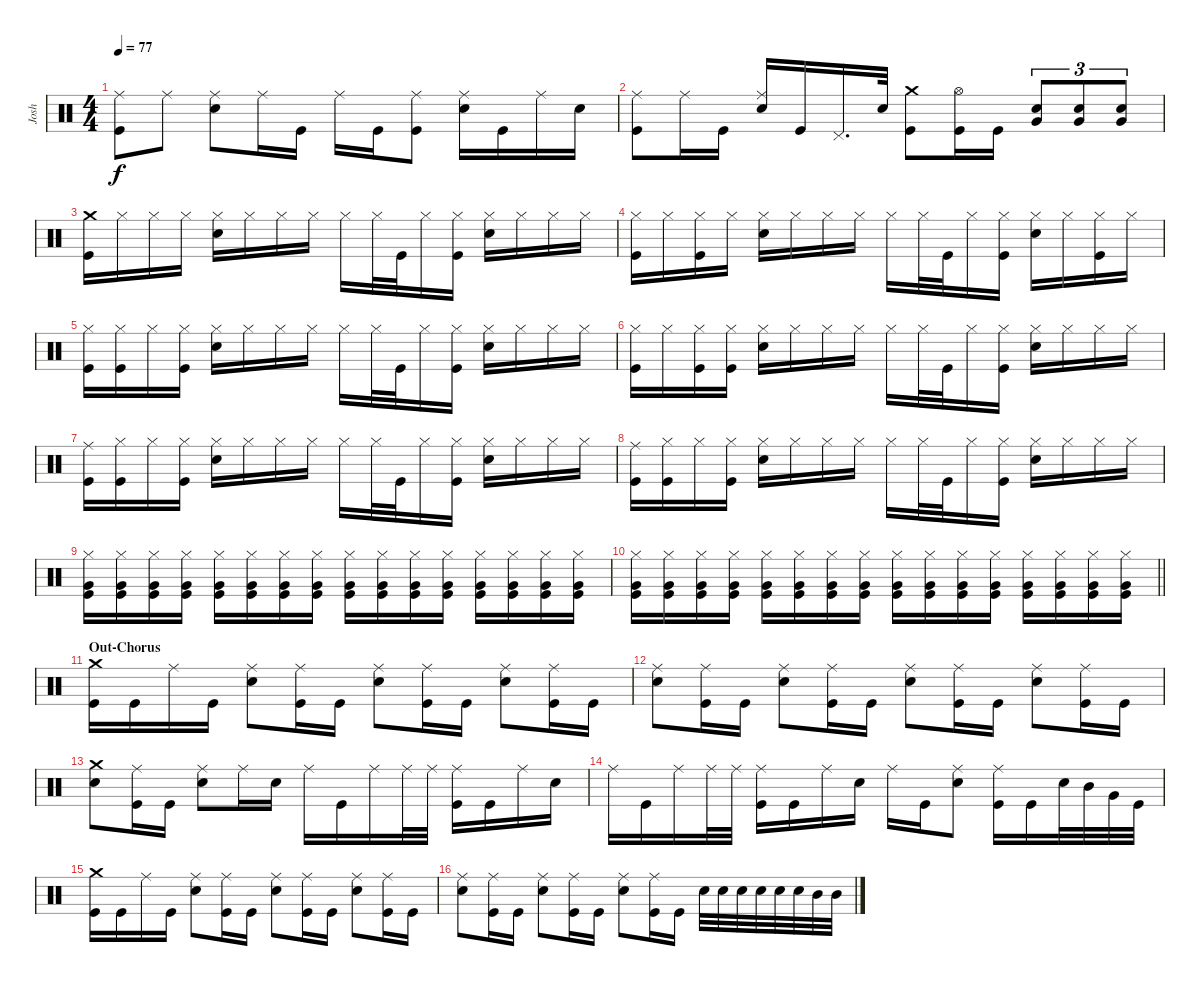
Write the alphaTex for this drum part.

\track ("Josh" "Josh") {instrument percussion}
\staff {score}
\articulation defaults
\ts (4 4)
\tempo 77
\clef neutral
\ks c
("Ride (middle)" "Kick (hit)").8{dy f} "Ride (middle)".8 ("Ride (middle)" "Snare (hit) 2").8 "Ride (middle)".16 "Kick (hit)".16 "Ride (middle)".16 "Kick (hit)".16 ("Ride (middle)" "Kick (hit)").8 ("Ride (middle)" "Snare (hit) 2").16 "Kick (hit)".16 "Ride (middle)".16 "Snare (hit) 2".16 |
("Ride (middle)" "Kick (hit)").8 "Ride (middle)".16 "Kick (hit)".16 ("Ride (middle)" "Snare (hit) 2").16 "Kick (hit)".16 "Pedal Hi-Hat (hit)".16{d} "Snare (hit) 2".32 ("Crash medium (hit)" "Kick (hit)").8 ("Hi-Hat (open)" "Kick (hit)").16 "Kick (hit)".16 ("Very Low Tom (hit)" "Snare (hit) 2").8{tu (3 2)} ("Very Low Tom (hit)" "Snare (hit) 2").8{tu (3 2)} ("Very Low Tom (hit)" "Snare (hit) 2").8{tu (3 2)} |
("Crash medium (hit)" "Kick (hit)").16 "Hi-Hat (closed)".16 "Hi-Hat (closed)".16 "Hi-Hat (closed)".16 ("Hi-Hat (closed)" "Snare (hit) 2").16 "Hi-Hat (closed)".16 "Hi-Hat (closed)".16 "Hi-Hat (closed)".16 "Hi-Hat (closed)".16 "Hi-Hat (closed)".32 "Kick (hit)".32 "Hi-Hat (closed)".16 ("Hi-Hat (closed)" "Kick (hit)").16 ("Hi-Hat (closed)" "Snare (hit) 2").16 "Hi-Hat (closed)".16 "Hi-Hat (closed)".16 "Hi-Hat (closed)".16 |
("Hi-Hat (closed)" "Kick (hit)").16 "Hi-Hat (closed)".16 ("Hi-Hat (closed)" "Kick (hit)").16 "Hi-Hat (closed)".16 ("Hi-Hat (closed)" "Snare (hit) 2").16 "Hi-Hat (closed)".16 "Hi-Hat (closed)".16 "Hi-Hat (closed)".16 "Hi-Hat (closed)".16 "Hi-Hat (closed)".32 "Kick (hit)".32 "Hi-Hat (closed)".16 ("Hi-Hat (closed)" "Kick (hit)").16 ("Hi-Hat (closed)" "Snare (hit) 2").16 "Hi-Hat (closed)".16 ("Hi-Hat (closed)" "Kick (hit)").16 "Hi-Hat (closed)".16 |
("Hi-Hat (closed)" "Kick (hit)").16 ("Hi-Hat (closed)" "Kick (hit)").16 "Hi-Hat (closed)".16 ("Hi-Hat (closed)" "Kick (hit)").16 ("Hi-Hat (closed)" "Snare (hit) 2").16 "Hi-Hat (closed)".16 "Hi-Hat (closed)".16 "Hi-Hat (closed)".16 "Hi-Hat (closed)".16 "Hi-Hat (closed)".32 "Kick (hit)".32 "Hi-Hat (closed)".16 ("Hi-Hat (closed)" "Kick (hit)").16 ("Hi-Hat (closed)" "Snare (hit) 2").16 "Hi-Hat (closed)".16 "Hi-Hat (closed)".16 "Hi-Hat (closed)".16 |
("Hi-Hat (closed)" "Kick (hit)").16 "Hi-Hat (closed)".16 ("Hi-Hat (closed)" "Kick (hit)").16 ("Hi-Hat (closed)" "Kick (hit)").16 ("Hi-Hat (closed)" "Snare (hit) 2").16 "Hi-Hat (closed)".16 "Hi-Hat (closed)".16 "Hi-Hat (closed)".16 "Hi-Hat (closed)".16 "Hi-Hat (closed)".32 "Kick (hit)".32 "Hi-Hat (closed)".16 ("Hi-Hat (closed)" "Kick (hit)").16 ("Hi-Hat (closed)" "Snare (hit) 2").16 "Hi-Hat (closed)".16 "Hi-Hat (closed)".16 "Hi-Hat (closed)".16 |
("Ride (middle)" "Kick (hit)").16 ("Hi-Hat (closed)" "Kick (hit)").16 "Hi-Hat (closed)".16 ("Hi-Hat (closed)" "Kick (hit)").16 ("Hi-Hat (closed)" "Snare (hit) 2").16 "Hi-Hat (closed)".16 "Hi-Hat (closed)".16 "Hi-Hat (closed)".16 "Hi-Hat (closed)".16 "Hi-Hat (closed)".32 "Kick (hit)".32 "Hi-Hat (closed)".16 ("Hi-Hat (closed)" "Kick (hit)").16 ("Hi-Hat (closed)" "Snare (hit) 2").16 "Hi-Hat (closed)".16 "Hi-Hat (closed)".16 "Hi-Hat (closed)".16 |
("Ride (middle)" "Kick (hit)").16 ("Hi-Hat (closed)" "Kick (hit)").16 "Hi-Hat (closed)".16 ("Hi-Hat (closed)" "Kick (hit)").16 ("Hi-Hat (closed)" "Snare (hit) 2").16 "Hi-Hat (closed)".16 "Hi-Hat (closed)".16 "Hi-Hat (closed)".16 "Hi-Hat (closed)".16 "Hi-Hat (closed)".32 "Kick (hit)".32 "Hi-Hat (closed)".16 ("Hi-Hat (closed)" "Kick (hit)").16 ("Hi-Hat (closed)" "Snare (hit) 2").16 "Hi-Hat (closed)".16 "Hi-Hat (closed)".16 "Hi-Hat (closed)".16 |
("Hi-Hat (closed)" "Very Low Tom (hit)" "Kick (hit)").16 ("Hi-Hat (closed)" "Very Low Tom (hit)" "Kick (hit)").16 ("Hi-Hat (closed)" "Very Low Tom (hit)" "Kick (hit)").16 ("Hi-Hat (closed)" "Very Low Tom (hit)" "Kick (hit)").16 ("Hi-Hat (closed)" "Very Low Tom (hit)" "Kick (hit)").16 ("Hi-Hat (closed)" "Very Low Tom (hit)" "Kick (hit)").16 ("Hi-Hat (closed)" "Very Low Tom (hit)" "Kick (hit)").16 ("Hi-Hat (closed)" "Very Low Tom (hit)" "Kick (hit)").16 ("Hi-Hat (closed)" "Very Low Tom (hit)" "Kick (hit)").16 ("Hi-Hat (closed)" "Very Low Tom (hit)" "Kick (hit)").16 ("Hi-Hat (closed)" "Very Low Tom (hit)" "Kick (hit)").16 ("Hi-Hat (closed)" "Very Low Tom (hit)" "Kick (hit)").16 ("Hi-Hat (closed)" "Very Low Tom (hit)" "Kick (hit)").16 ("Hi-Hat (closed)" "Very Low Tom (hit)" "Kick (hit)").16 ("Hi-Hat (closed)" "Very Low Tom (hit)" "Kick (hit)").16 ("Hi-Hat (closed)" "Very Low Tom (hit)" "Kick (hit)").16 |
\barLineRight lightlight
("Hi-Hat (closed)" "Very Low Tom (hit)" "Kick (hit)").16 ("Hi-Hat (closed)" "Very Low Tom (hit)" "Kick (hit)").16 ("Hi-Hat (closed)" "Very Low Tom (hit)" "Kick (hit)").16 ("Hi-Hat (closed)" "Very Low Tom (hit)" "Kick (hit)").16 ("Hi-Hat (closed)" "Very Low Tom (hit)" "Kick (hit)").16 ("Hi-Hat (closed)" "Very Low Tom (hit)" "Kick (hit)").16 ("Hi-Hat (closed)" "Very Low Tom (hit)" "Kick (hit)").16 ("Hi-Hat (closed)" "Very Low Tom (hit)" "Kick (hit)").16 ("Hi-Hat (closed)" "Very Low Tom (hit)" "Kick (hit)").16 ("Hi-Hat (closed)" "Very Low Tom (hit)" "Kick (hit)").16 ("Hi-Hat (closed)" "Very Low Tom (hit)" "Kick (hit)").16 ("Hi-Hat (closed)" "Very Low Tom (hit)" "Kick (hit)").16 ("Hi-Hat (closed)" "Very Low Tom (hit)" "Kick (hit)").16 ("Hi-Hat (closed)" "Very Low Tom (hit)" "Kick (hit)").16 ("Hi-Hat (closed)" "Very Low Tom (hit)" "Kick (hit)").16 ("Hi-Hat (closed)" "Very Low Tom (hit)" "Kick (hit)").16 |
\section ("" "Out-Chorus")
("Crash medium (hit)" "Kick (hit)").16 "Kick (hit)".16 "Ride (middle)".16 "Kick (hit)".16 ("Ride (middle)" "Snare (hit) 2").8 ("Ride (middle)" "Kick (hit)").16 "Kick (hit)".16 ("Ride (middle)" "Snare (hit) 2").8 ("Ride (middle)" "Kick (hit)").16 "Kick (hit)".16 ("Ride (middle)" "Snare (hit) 2").8 ("Ride (middle)" "Kick (hit)").16 "Kick (hit)".16 |
("Ride (middle)" "Snare (hit) 2").8 ("Ride (middle)" "Kick (hit)").16 "Kick (hit)".16 ("Ride (middle)" "Snare (hit) 2").8 ("Ride (middle)" "Kick (hit)").16 "Kick (hit)".16 ("Ride (middle)" "Snare (hit) 2").8 ("Ride (middle)" "Kick (hit)").16 "Kick (hit)".16 ("Ride (middle)" "Snare (hit) 2").8 ("Ride (middle)" "Kick (hit)").16 "Kick (hit)".16 |
("Crash medium (hit)" "Snare (hit) 2").8 ("Ride (middle)" "Kick (hit)").16 "Kick (hit)".16 ("Ride (middle)" "Snare (hit) 2").8 "Ride (middle)".16 "Snare (hit) 2".16 "Ride (middle)".16 "Kick (hit)".16 "Ride (middle)".16 "Ride (middle)".32 "Ride (middle)".32 ("Ride (middle)" "Kick (hit)").16 "Kick (hit)".16 "Ride (middle)".16 "Snare (hit) 2".16 |
"Ride (middle)".16 "Kick (hit)".16 "Ride (middle)".16 "Ride (middle)".32 "Ride (middle)".32 ("Ride (middle)" "Kick (hit)").16 "Kick (hit)".16 "Ride (middle)".16 "Snare (hit) 2".16 "Ride (middle)".16 "Kick (hit)".16 ("Ride (middle)" "Snare (hit) 2").8 ("Ride (middle)" "Kick (hit)").16 "Kick (hit)".16 "Snare (hit) 2".32 "Mid Tom (hit)".32 "Very Low Tom (hit)".32 "Kick (hit)".32 |
("Crash medium (hit)" "Kick (hit)").16 "Kick (hit)".16 "Ride (middle)".16 "Kick (hit)".16 ("Ride (middle)" "Snare (hit) 2").8 ("Ride (middle)" "Kick (hit)").16 "Kick (hit)".16 ("Ride (middle)" "Snare (hit) 2").8 ("Ride (middle)" "Kick (hit)").16 "Kick (hit)".16 ("Ride (middle)" "Snare (hit) 2").8 ("Ride (middle)" "Kick (hit)").16 "Kick (hit)".16 |
("Ride (middle)" "Snare (hit) 2").8 ("Ride (middle)" "Kick (hit)").16 "Kick (hit)".16 ("Ride (middle)" "Snare (hit) 2").8 ("Ride (middle)" "Kick (hit)").16 "Kick (hit)".16 ("Ride (middle)" "Snare (hit) 2").8 ("Ride (middle)" "Kick (hit)").16 "Kick (hit)".16 "Snare (hit) 2".32 "Snare (hit) 2".32 "Snare (hit) 2".32 "Snare (hit) 2".32 "Snare (hit) 2".32 "Snare (hit) 2".32 "Mid Tom (hit)".32 "Mid Tom (hit)".32
